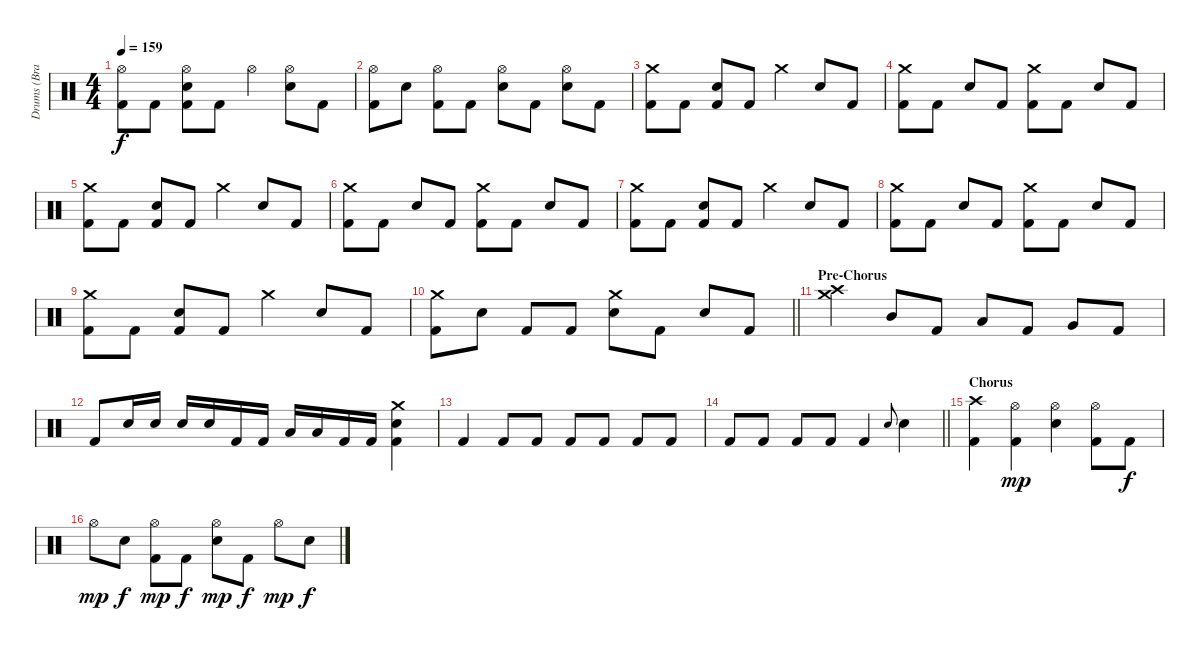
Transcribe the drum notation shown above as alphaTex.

\track ("Drums (Brandon Saller)" "Drums (Bra") {instrument percussion}
\staff {score}
\articulation defaults
\ts (4 4)
\tempo 159
\clef neutral
\ks c
("Hi-Hat (open)" "Kick (hit) 2").8{dy f} "Kick (hit) 2".8 ("Hi-Hat (open)" "Electric Snare (hit)" "Kick (hit) 2").8 "Kick (hit) 2".8 "Hi-Hat (open)".4 ("Hi-Hat (open)" "Electric Snare (hit)").8 "Kick (hit) 2".8 |
("Hi-Hat (open)" "Kick (hit) 2").8 "Electric Snare (hit)".8 ("Hi-Hat (open)" "Kick (hit) 2").8 "Kick (hit) 2".8 ("Hi-Hat (open)" "Electric Snare (hit)").8 "Kick (hit) 2".8 ("Hi-Hat (open)" "Electric Snare (hit)").8 "Kick (hit) 2".8 |
("Crash medium (hit)" "Kick (hit) 2").8 "Kick (hit) 2".8 ("Electric Snare (hit)" "Kick (hit) 2").8 "Kick (hit) 2".8 "Crash medium (hit)".4 "Electric Snare (hit)".8 "Kick (hit) 2".8 |
("Crash medium (hit)" "Kick (hit) 2").8 "Kick (hit) 2".8 "Electric Snare (hit)".8 "Kick (hit) 2".8 ("Crash medium (hit)" "Kick (hit) 2").8 "Kick (hit) 2".8 "Electric Snare (hit)".8 "Kick (hit) 2".8 |
("Crash medium (hit)" "Kick (hit) 2").8 "Kick (hit) 2".8 ("Electric Snare (hit)" "Kick (hit) 2").8 "Kick (hit) 2".8 "Crash medium (hit)".4 "Electric Snare (hit)".8 "Kick (hit) 2".8 |
("Crash medium (hit)" "Kick (hit) 2").8 "Kick (hit) 2".8 "Electric Snare (hit)".8 "Kick (hit) 2".8 ("Crash medium (hit)" "Kick (hit) 2").8 "Kick (hit) 2".8 "Electric Snare (hit)".8 "Kick (hit) 2".8 |
("Crash medium (hit)" "Kick (hit) 2").8 "Kick (hit) 2".8 ("Electric Snare (hit)" "Kick (hit) 2").8 "Kick (hit) 2".8 "Crash medium (hit)".4 "Electric Snare (hit)".8 "Kick (hit) 2".8 |
("Crash medium (hit)" "Kick (hit) 2").8 "Kick (hit) 2".8 "Electric Snare (hit)".8 "Kick (hit) 2".8 ("Crash medium (hit)" "Kick (hit) 2").8 "Kick (hit) 2".8 "Electric Snare (hit)".8 "Kick (hit) 2".8 |
("Crash medium (hit)" "Kick (hit) 2").8 "Kick (hit) 2".8 ("Electric Snare (hit)" "Kick (hit) 2").8 "Kick (hit) 2".8 "Crash medium (hit)".4 "Electric Snare (hit)".8 "Kick (hit) 2".8 |
\barLineRight lightlight
("Crash medium (hit)" "Kick (hit) 2").8 "Electric Snare (hit)".8 "Kick (hit) 2".8 "Kick (hit) 2".8 ("Crash medium (hit)" "Electric Snare (hit)").8 "Kick (hit) 2".8 "Electric Snare (hit)".8 "Kick (hit) 2".8 |
\section ("" "Pre-Chorus")
("Crash high (hit)" "Crash medium (hit)").4 "Mid Tom (hit)".8 "Kick (hit) 2".8 "Low Tom (hit)".8 "Kick (hit) 2".8 "Very Low Tom (hit)".8 "Kick (hit) 2".8 |
"Kick (hit) 2".8 "Electric Snare (hit)".16 "Electric Snare (hit)".16 "Electric Snare (hit)".16 "Electric Snare (hit)".16 "Kick (hit) 2".16 "Kick (hit) 2".16 "Low Tom (hit)".16 "Low Tom (hit)".16 "Kick (hit) 2".16 "Kick (hit) 2".16 ("Crash medium (hit)" "Electric Snare (hit)" "Kick (hit) 2").4 |
"Kick (hit) 2".4 "Kick (hit) 2".8 "Kick (hit) 2".8 "Kick (hit) 2".8 "Kick (hit) 2".8 "Kick (hit) 2".8 "Kick (hit) 2".8 |
\barLineRight lightlight "Kick (hit) 2".8 "Kick (hit) 2".8 "Kick (hit) 2".8 "Kick (hit) 2".8 "Kick (hit) 2".4 "Electric Snare (hit)".8{gr onbeat} "Electric Snare (hit)".4
|
\section ("" "Chorus")
("Crash high (hit)" "Kick (hit) 2").4 ("Hi-Hat (open)" "Kick (hit) 2").4{dy mp} ("Hi-Hat (open)" "Electric Snare (hit)").4 ("Hi-Hat (open)" "Kick (hit) 2").8 "Kick (hit) 2".8{dy f} |
"Hi-Hat (open)".8{dy mp} "Electric Snare (hit)".8{dy f} ("Hi-Hat (open)" "Kick (hit) 2").8{dy mp} "Kick (hit) 2".8{dy f} ("Hi-Hat (open)" "Electric Snare (hit)").8{dy mp} "Kick (hit) 2".8{dy f} "Hi-Hat (open)".8{dy mp} "Electric Snare (hit)".8{dy f}
